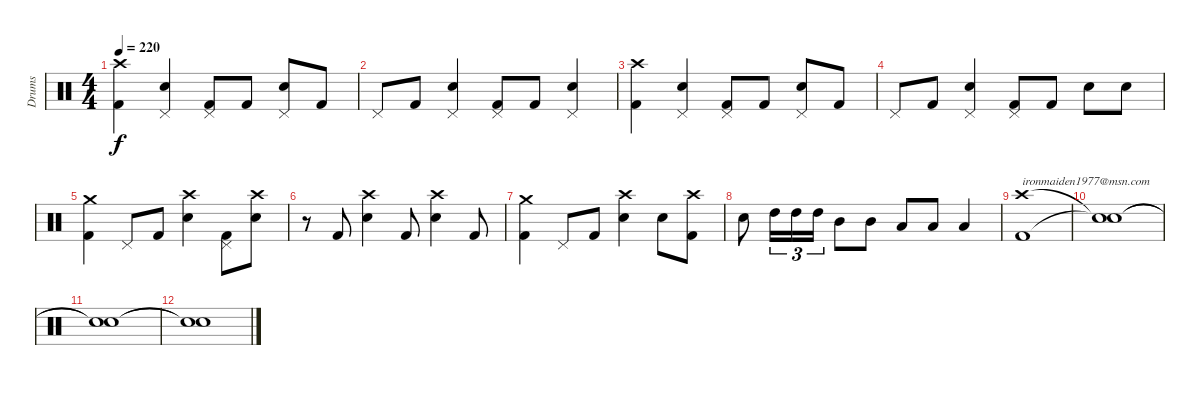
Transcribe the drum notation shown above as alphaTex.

\track ("Drums" "Drums") {instrument percussion}
\staff {score}
\articulation defaults
\ts (4 4)
\tempo 220
\clef neutral
\ks c
("Crash high (hit)" "Kick (hit) 2").4{dy f} ("Pedal Hi-Hat (hit)" "Snare (hit) 2").4 ("Pedal Hi-Hat (hit)" "Kick (hit) 2").8 "Kick (hit) 2".8 ("Pedal Hi-Hat (hit)" "Snare (hit) 2").8 "Kick (hit) 2".8 |
"Pedal Hi-Hat (hit)".8 "Kick (hit) 2".8 ("Pedal Hi-Hat (hit)" "Snare (hit) 2").4 ("Pedal Hi-Hat (hit)" "Kick (hit) 2").8 "Kick (hit) 2".8 ("Pedal Hi-Hat (hit)" "Snare (hit) 2").4 |
("Crash high (hit)" "Kick (hit) 2").4 ("Pedal Hi-Hat (hit)" "Snare (hit) 2").4 ("Pedal Hi-Hat (hit)" "Kick (hit) 2").8 "Kick (hit) 2".8 ("Pedal Hi-Hat (hit)" "Snare (hit) 2").8 "Kick (hit) 2".8 |
"Pedal Hi-Hat (hit)".8 "Kick (hit) 2".8 ("Pedal Hi-Hat (hit)" "Snare (hit) 2").4 ("Pedal Hi-Hat (hit)" "Kick (hit) 2").8 "Kick (hit) 2".8 "Snare (hit) 2".8 "Snare (hit) 2".8 |
("Crash medium (hit)" "Kick (hit) 2").4 "Pedal Hi-Hat (hit)".8 "Kick (hit) 2".8 ("Crash high (hit)" "Snare (hit) 2").4 ("Pedal Hi-Hat (hit)" "Kick (hit) 2").8 ("Crash high (hit)" "Snare (hit) 2").8 |
r.8 "Kick (hit) 2".8 ("Crash high (hit)" "Snare (hit) 2").4 "Kick (hit) 2".8 ("Crash high (hit)" "Snare (hit) 2").4 "Kick (hit) 2".8 |
("Crash medium (hit)" "Kick (hit) 2").4 "Pedal Hi-Hat (hit)".8 "Kick (hit) 2".8 ("Crash high (hit)" "Snare (hit) 2").4 "Snare (hit) 2".8 ("Crash high (hit)" "Kick (hit) 2").8 |
"Snare (hit) 2".8 "High Tom (hit)".16{tu (3 2)} "High Tom (hit)".16{tu (3 2)} "High Tom (hit)".16{tu (3 2)} "Mid Tom (hit)".8 "Mid Tom (hit)".8 "Low Tom (hit)".8 "Low Tom (hit)".8 "Low Tom (hit)".4 |
("Crash high (hit)" "Kick (hit) 2").1{txt "ironmaiden1977@msn.com"} |
("Snare (hit)"{t} "Snare (hit)"{t}).1 |
("Snare (hit)"{t} "Snare (hit)"{t}).1 |
("Snare (hit)"{t} "Snare (hit)"{t}).1
